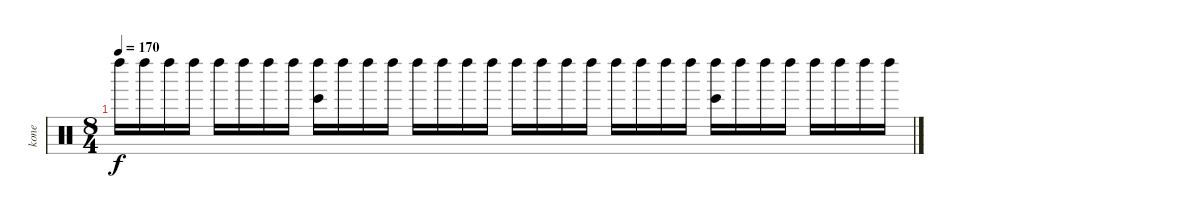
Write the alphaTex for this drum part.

\track ("kone" "kone") {instrument percussion}
\staff {score}
\articulation defaults
\ts (8 4)
\tempo 170
\clef neutral
\ks c "Left Maraca (hit)".16{dy f} "Left Maraca (hit)".16 "Left Maraca (hit)".16 "Left Maraca (hit)".16 "Left Maraca (hit)".16 "Left Maraca (hit)".16 "Left Maraca (hit)".16 "Left Maraca (hit)".16
("Left Maraca (hit)" "Bongo High (hit)").16 "Left Maraca (hit)".16 "Left Maraca (hit)".16 "Left Maraca (hit)".16 "Left Maraca (hit)".16 "Left Maraca (hit)".16 "Left Maraca (hit)".16 "Left Maraca (hit)".16 "Left Maraca (hit)".16 "Left Maraca (hit)".16 "Left Maraca (hit)".16 "Left Maraca (hit)".16 "Left Maraca (hit)".16 "Left Maraca (hit)".16 "Left Maraca (hit)".16 "Left Maraca (hit)".16 ("Left Maraca (hit)" "Bongo High (hit)").16 "Left Maraca (hit)".16 "Left Maraca (hit)".16 "Left Maraca (hit)".16 "Left Maraca (hit)".16 "Left Maraca (hit)".16 "Left Maraca (hit)".16 "Left Maraca (hit)".16
